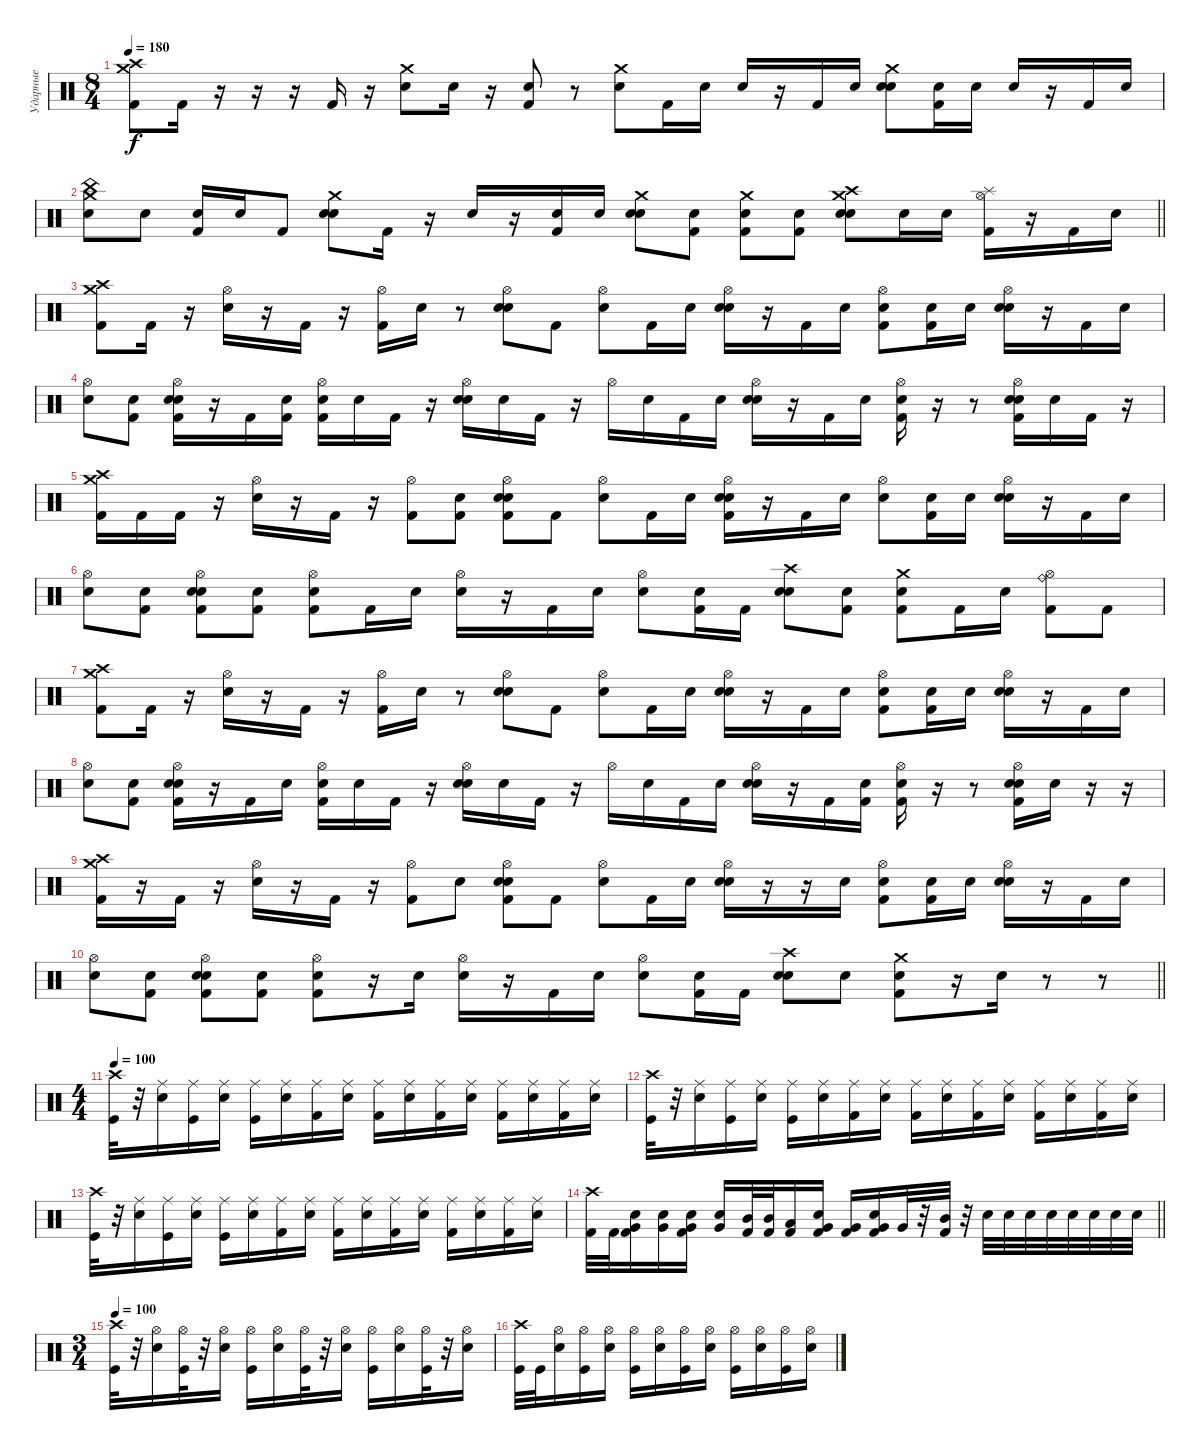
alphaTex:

\track ("Ударные" "Ударные") {instrument percussion}
\staff {score}
\articulation defaults
\ts (8 4)
\tempo 180
\clef neutral
\ks c
("Crash medium (hit)" "Crash high (hit)" "Kick (hit) 2").8{dy f} "Kick (hit) 2".16 r.16 r.16 r.16 "Kick (hit) 2".16 r.16 ("Crash medium (hit)" "Electric Snare (hit)").8 "Snare (hit)".16 r.16 ("Snare (hit)" "Kick (hit) 2").8 r.8 ("Crash medium (hit)" "Snare (hit)").8 "Kick (hit) 2".16 "Snare (hit)".16 "Snare (hit)".16 r.16 "Kick (hit) 2".16 "Snare (hit)".16 ("Crash medium (hit)" "Electric Snare (hit)" "Snare (hit)").8 ("Snare (hit)" "Kick (hit) 2").16 "Snare (hit)".16 "Snare (hit)".16 r.16 "Kick (hit) 2".16 "Snare (hit)".16 |
\barLineRight lightlight
("Crash medium (hit)" "China (hit)" "Snare (hit)").8 "Snare (hit)".8 ("Snare (hit)" "Kick (hit) 2").16 "Snare (hit)".16 "Kick (hit) 2".8 ("Crash medium (hit)" "Electric Snare (hit)" "Snare (hit)").8 "Kick (hit) 2".16 r.16 "Snare (hit)".16 r.16 ("Snare (hit)" "Kick (hit) 2").16 "Snare (hit)".16 ("Crash medium (hit)" "Electric Snare (hit)" "Snare (hit)").8 ("Snare (hit)" "Kick (hit) 2").8 ("Crash medium (hit)" "Snare (hit)" "Kick (hit) 2").8 ("Snare (hit)" "Kick (hit) 2").8 ("Crash high (hit)" "Crash medium (hit)" "Electric Snare (hit)" "Snare (hit)").8 "Electric Snare (hit)".16 "Snare (hit)".16 ("Hi-Hat (open)" "Splash (hit)" "Kick (hit) 2").16 r.16 "Kick (hit) 2".16 "Snare (hit)".16 |
("Crash medium (hit)" "Crash high (hit)" "Kick (hit) 2").8 "Kick (hit) 2".16 r.16 ("Hi-Hat (open)" "Electric Snare (hit)").16 r.16 "Kick (hit) 2".16 r.16 ("Hi-Hat (open)" "Kick (hit) 2").16 "Snare (hit)".16 r.8 ("Hi-Hat (open)" "Electric Snare (hit)" "Snare (hit)").8 "Kick (hit) 2".8 ("Hi-Hat (open)" "Snare (hit)").8 "Kick (hit) 2".16 "Snare (hit)".16 ("Hi-Hat (open)" "Electric Snare (hit)" "Snare (hit)").16 r.16 "Kick (hit) 2".16 "Snare (hit)".16 ("Hi-Hat (open)" "Snare (hit)" "Kick (hit) 2").8 ("Snare (hit)" "Kick (hit) 2").16 "Snare (hit)".16 ("Hi-Hat (open)" "Electric Snare (hit)" "Snare (hit)").16 r.16 "Kick (hit) 2".16 "Snare (hit)".16 |
("Hi-Hat (open)" "Snare (hit)").8 ("Snare (hit)" "Kick (hit) 2").8 ("Hi-Hat (open)" "Electric Snare (hit)" "Snare (hit)" "Kick (hit) 2").16 r.16 "Kick (hit) 2".16 ("Snare (hit)" "Kick (hit) 2").16 ("Hi-Hat (open)" "Snare (hit)" "Kick (hit) 2").16 "Snare (hit)".16 "Kick (hit) 2".16 r.16 ("Hi-Hat (open)" "Electric Snare (hit)" "Snare (hit)").16 "Snare (hit)".16 "Kick (hit) 2".16 r.16 "Hi-Hat (open)".16 "Snare (hit)".16 "Kick (hit) 2".16 "Snare (hit)".16 ("Hi-Hat (open)" "Electric Snare (hit)" "Snare (hit)").16 r.16 "Kick (hit) 2".16 "Snare (hit)".16 ("Hi-Hat (open)" "Snare (hit)" "Kick (hit) 2").16 r.16 r.8 ("Hi-Hat (open)" "Electric Snare (hit)" "Snare (hit)" "Kick (hit) 2").16 "Snare (hit)".16 "Kick (hit) 2".16 r.16 |
("Crash medium (hit)" "Crash high (hit)" "Kick (hit) 2").16 "Kick (hit) 2".16 "Kick (hit) 2".16 r.16 ("Hi-Hat (open)" "Electric Snare (hit)").16 r.16 "Kick (hit) 2".16 r.16 ("Hi-Hat (open)" "Kick (hit) 2").8 ("Snare (hit)" "Kick (hit) 2").8 ("Hi-Hat (open)" "Electric Snare (hit)" "Snare (hit)" "Kick (hit) 2").8 "Kick (hit) 2".8 ("Hi-Hat (open)" "Snare (hit)").8 "Kick (hit) 2".16 "Snare (hit)".16 ("Hi-Hat (open)" "Electric Snare (hit)" "Snare (hit)" "Kick (hit) 2").16 r.16 "Kick (hit) 2".16 "Snare (hit)".16 ("Hi-Hat (open)" "Snare (hit)").8 ("Snare (hit)" "Kick (hit) 2").16 "Snare (hit)".16 ("Hi-Hat (open)" "Electric Snare (hit)" "Snare (hit)").16 r.16 "Kick (hit) 2".16 "Snare (hit)".16 |
("Hi-Hat (open)" "Snare (hit)").8 ("Snare (hit)" "Kick (hit) 2").8 ("Hi-Hat (open)" "Electric Snare (hit)" "Snare (hit)" "Kick (hit) 2").8 ("Snare (hit)" "Kick (hit) 2").8 ("Hi-Hat (open)" "Snare (hit)" "Kick (hit) 2").8 "Kick (hit) 2".16 "Snare (hit)".16 ("Hi-Hat (open)" "Electric Snare (hit)").16 r.16 "Kick (hit) 2".16 "Snare (hit)".16 ("Hi-Hat (open)" "Snare (hit)").8 ("Snare (hit)" "Kick (hit) 2").16 "Kick (hit) 2".16 ("Crash high (hit)" "Electric Snare (hit)" "Snare (hit)").8 ("Snare (hit)" "Kick (hit) 2").8 ("Crash medium (hit)" "Snare (hit)" "Kick (hit) 2").8 "Kick (hit) 2".16 "Snare (hit)".16 ("Ride (bell)" "Hi-Hat (open)" "Kick (hit) 2").8 "Kick (hit) 2".8 |
("Crash medium (hit)" "Crash high (hit)" "Kick (hit) 2").8 "Kick (hit) 2".16 r.16 ("Hi-Hat (open)" "Electric Snare (hit)").16 r.16 "Kick (hit) 2".16 r.16 ("Hi-Hat (open)" "Kick (hit) 2").16 "Snare (hit)".16 r.8 ("Hi-Hat (open)" "Electric Snare (hit)" "Snare (hit)").8 "Kick (hit) 2".8 ("Hi-Hat (open)" "Snare (hit)").8 "Kick (hit) 2".16 "Snare (hit)".16 ("Hi-Hat (open)" "Electric Snare (hit)" "Snare (hit)").16 r.16 "Kick (hit) 2".16 "Snare (hit)".16 ("Hi-Hat (open)" "Snare (hit)" "Kick (hit) 2").8 ("Snare (hit)" "Kick (hit) 2").16 "Snare (hit)".16 ("Hi-Hat (open)" "Electric Snare (hit)" "Snare (hit)").16 r.16 "Kick (hit) 2".16 "Snare (hit)".16 |
("Hi-Hat (open)" "Snare (hit)").8 ("Snare (hit)" "Kick (hit) 2").8 ("Hi-Hat (open)" "Electric Snare (hit)" "Snare (hit)" "Kick (hit) 2").16 r.16 "Kick (hit) 2".16 "Snare (hit)".16 ("Hi-Hat (open)" "Snare (hit)" "Kick (hit) 2").16 "Snare (hit)".16 "Kick (hit) 2".16 r.16 ("Hi-Hat (open)" "Electric Snare (hit)" "Snare (hit)").16 "Snare (hit)".16 "Kick (hit) 2".16 r.16 "Hi-Hat (open)".16 "Snare (hit)".16 "Kick (hit) 2".16 "Snare (hit)".16 ("Hi-Hat (open)" "Electric Snare (hit)" "Snare (hit)").16 r.16 "Kick (hit) 2".16 ("Snare (hit)" "Kick (hit) 2").16 ("Hi-Hat (open)" "Snare (hit)" "Kick (hit) 2").16 r.16 r.8 ("Hi-Hat (open)" "Electric Snare (hit)" "Snare (hit)" "Kick (hit) 2").16 "Snare (hit)".16 r.16 r.16 |
("Crash medium (hit)" "Crash high (hit)" "Kick (hit) 2").16 r.16 "Kick (hit) 2".16 r.16 ("Hi-Hat (open)" "Electric Snare (hit)").16 r.16 "Kick (hit) 2".16 r.16 ("Hi-Hat (open)" "Kick (hit) 2").8 "Snare (hit)".8 ("Hi-Hat (open)" "Electric Snare (hit)" "Snare (hit)" "Kick (hit) 2").8 "Kick (hit) 2".8 ("Hi-Hat (open)" "Snare (hit)").8 "Kick (hit) 2".16 "Snare (hit)".16 ("Hi-Hat (open)" "Electric Snare (hit)" "Snare (hit)").16 r.16 r.16 "Snare (hit)".16 ("Hi-Hat (open)" "Snare (hit)" "Kick (hit) 2").8 ("Snare (hit)" "Kick (hit) 2").16 "Snare (hit)".16 ("Hi-Hat (open)" "Electric Snare (hit)" "Snare (hit)").16 r.16 "Kick (hit) 2".16 "Snare (hit)".16 |
\barLineRight lightlight
("Hi-Hat (open)" "Snare (hit)").8 ("Snare (hit)" "Kick (hit) 2").8 ("Hi-Hat (open)" "Electric Snare (hit)" "Snare (hit)" "Kick (hit) 2").8 ("Snare (hit)" "Kick (hit) 2").8 ("Hi-Hat (open)" "Snare (hit)" "Kick (hit) 2").8 r.16 "Snare (hit)".16 ("Hi-Hat (open)" "Electric Snare (hit)").16 r.16 "Kick (hit) 2".16 "Snare (hit)".16 ("Hi-Hat (open)" "Snare (hit)").8 ("Snare (hit)" "Kick (hit) 2").16 "Kick (hit) 2".16 ("Crash high (hit)" "Electric Snare (hit)" "Snare (hit)").8 "Snare (hit)".8 ("Crash medium (hit)" "Snare (hit)" "Kick (hit) 2").8 r.16 "Snare (hit)".16 r.8 r.8 |
\ts (4 4)
\tempo 100
("Crash high (hit)" "Kick (hit)").32 r.32 ("Ride (middle)" "Electric Snare (hit)").16 ("Ride (middle)" "Kick (hit)").16 ("Ride (middle)" "Electric Snare (hit)").16 ("Ride (middle)" "Kick (hit)").16 ("Ride (middle)" "Electric Snare (hit)").16 ("Ride (middle)" "Kick (hit) 2").16 ("Ride (middle)" "Electric Snare (hit)").16 ("Ride (middle)" "Kick (hit) 2").16 ("Ride (middle)" "Electric Snare (hit)").16 ("Ride (middle)" "Kick (hit) 2").16 ("Ride (middle)" "Electric Snare (hit)").16 ("Ride (middle)" "Kick (hit) 2").16 ("Ride (middle)" "Electric Snare (hit)").16 ("Ride (middle)" "Kick (hit) 2").16 ("Ride (middle)" "Electric Snare (hit)").16 |
("Crash high (hit)" "Kick (hit)").32 r.32 ("Ride (middle)" "Electric Snare (hit)").16 ("Ride (middle)" "Kick (hit)").16 ("Ride (middle)" "Electric Snare (hit)").16 ("Ride (middle)" "Kick (hit)").16 ("Ride (middle)" "Electric Snare (hit)").16 ("Ride (middle)" "Kick (hit) 2").16 ("Ride (middle)" "Electric Snare (hit)").16 ("Ride (middle)" "Kick (hit) 2").16 ("Ride (middle)" "Electric Snare (hit)").16 ("Ride (middle)" "Kick (hit) 2").16 ("Ride (middle)" "Electric Snare (hit)").16 ("Ride (middle)" "Kick (hit) 2").16 ("Ride (middle)" "Electric Snare (hit)").16 ("Ride (middle)" "Kick (hit) 2").16 ("Ride (middle)" "Electric Snare (hit)").16 |
("Crash high (hit)" "Kick (hit)").32 r.32 ("Ride (middle)" "Electric Snare (hit)").16 ("Ride (middle)" "Kick (hit)").16 ("Ride (middle)" "Electric Snare (hit)").16 ("Ride (middle)" "Kick (hit)").16 ("Ride (middle)" "Electric Snare (hit)").16 ("Ride (middle)" "Kick (hit) 2").16 ("Ride (middle)" "Electric Snare (hit)").16 ("Ride (middle)" "Kick (hit) 2").16 ("Ride (middle)" "Electric Snare (hit)").16 ("Ride (middle)" "Kick (hit) 2").16 ("Ride (middle)" "Electric Snare (hit)").16 ("Ride (middle)" "Kick (hit) 2").16 ("Ride (middle)" "Electric Snare (hit)").16 ("Ride (middle)" "Kick (hit) 2").16 ("Ride (middle)" "Electric Snare (hit)").16 |
\barLineRight lightlight
("Crash high (hit)" "Kick (hit) 2").32 "Kick (hit) 2".32 ("Very Low Tom (hit)" "Electric Snare (hit)" "Kick (hit) 2").16 ("Very Low Tom (hit)" "Electric Snare (hit)").16 ("Very Low Tom (hit)" "Electric Snare (hit)" "Kick (hit) 2").16 ("Very Low Tom (hit)" "Electric Snare (hit)").16 ("Mid Tom (hit)" "Kick (hit) 2").32 ("Mid Tom (hit)" "Kick (hit) 2").32 ("Low Floor Tom (hit)" "Kick (hit) 2").16 ("Very Low Tom (hit)" "Electric Snare (hit)" "Kick (hit) 2").16 ("Very Low Tom (hit)" "Kick (hit) 2").16 ("Very Low Tom (hit)" "Electric Snare (hit)" "Kick (hit) 2").16 "Very Low Tom (hit)".32 r.32 ("Mid Tom (hit)" "Kick (hit) 2").32 r.32 "Electric Snare (hit)".32 "Electric Snare (hit)".32 "Electric Snare (hit)".32 "Electric Snare (hit)".32 "Electric Snare (hit)".32 "Electric Snare (hit)".32 "Electric Snare (hit)".32 "Electric Snare (hit)".32 |
\ts (3 4)
\tempo 100
("Crash high (hit)" "Kick (hit)").32 r.32 ("Hi-Hat (open)" "Electric Snare (hit)").16 ("Hi-Hat (open)" "Kick (hit)").32 r.32 ("Hi-Hat (open)" "Electric Snare (hit)").16 ("Hi-Hat (open)" "Kick (hit)").16 ("Hi-Hat (open)" "Electric Snare (hit)").16 ("Hi-Hat (open)" "Kick (hit)").32 r.32 ("Hi-Hat (open)" "Electric Snare (hit)").16 ("Hi-Hat (open)" "Kick (hit)").16 ("Hi-Hat (open)" "Electric Snare (hit)").16 ("Hi-Hat (open)" "Kick (hit)").32 r.32 ("Hi-Hat (open)" "Electric Snare (hit)").16 |
("Crash high (hit)" "Kick (hit)").32 "Kick (hit)".32 ("Hi-Hat (open)" "Electric Snare (hit)").16 ("Hi-Hat (open)" "Kick (hit)").16 ("Hi-Hat (open)" "Electric Snare (hit)").16 ("Hi-Hat (open)" "Kick (hit)").16 ("Hi-Hat (open)" "Electric Snare (hit)").16 ("Hi-Hat (open)" "Kick (hit)").16 ("Hi-Hat (open)" "Electric Snare (hit)").16 ("Hi-Hat (open)" "Kick (hit)").16 ("Hi-Hat (open)" "Electric Snare (hit)").16 ("Hi-Hat (open)" "Kick (hit)").16 ("Hi-Hat (open)" "Electric Snare (hit)").16
